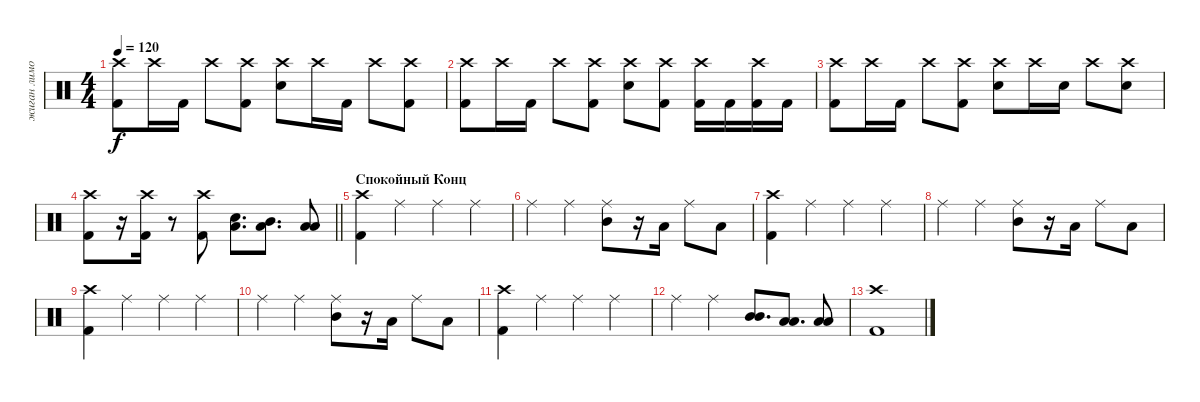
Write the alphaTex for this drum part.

\track ("жиган лимон" "жиган лимо") {instrument percussion}
\staff {score}
\articulation defaults
\ts (4 4)
\tempo 120
\clef neutral
\ks c
("Crash high (hit)" "Kick (hit) 2").8{dy f} "Crash high (hit)".16 "Kick (hit) 2".16 "Crash high (hit)".8 ("Crash high (hit)" "Kick (hit) 2").8 ("Snare (hit) 2" "Crash high (hit)").8 "Crash high (hit)".16 "Kick (hit) 2".16 "Crash high (hit)".8 ("Crash high (hit)" "Kick (hit) 2").8 |
("Crash high (hit)" "Kick (hit) 2").8 "Crash high (hit)".16 "Kick (hit) 2".16 "Crash high (hit)".8 ("Crash high (hit)" "Kick (hit) 2").8 ("Snare (hit) 2" "Crash high (hit)").8 ("Crash high (hit)" "Kick (hit) 2").8 ("Crash high (hit)" "Kick (hit) 2").16 "Kick (hit) 2".16 ("Crash high (hit)" "Kick (hit) 2").16 "Kick (hit) 2".16 |
("Crash high (hit)" "Kick (hit) 2").8 "Crash high (hit)".16 "Kick (hit) 2".16 "Crash high (hit)".8 ("Crash high (hit)" "Kick (hit) 2").8 ("Snare (hit) 2" "Crash high (hit)").8 "Crash high (hit)".16 "Snare (hit) 2".16 "Crash high (hit)".8 ("Crash high (hit)" "Snare (hit) 2").8 |
\barLineRight lightlight
("Crash high (hit)" "Kick (hit) 2").8 r.16 ("Crash high (hit)" "Kick (hit) 2").16 r.8 ("Crash high (hit)" "Kick (hit) 2").8 ("Low Tom (hit)" "Snare (hit) 2").8{d} ("Mid Tom (hit)" "Low Tom (hit)").8{d} ("Low Tom (hit)" "Low Tom (hit)").8 |
\section ("" "Спокойный Конц")
("Crash high (hit)" "Kick (hit) 2").4 "Ride (middle)".4 "Ride (middle)".4 "Ride (middle)".4 |
"Ride (middle)".4 "Ride (middle)".4 ("Ride (middle)" "Mid Tom (hit)").8 r.16 "Low Tom (hit)".16 "Ride (middle)".8 "Low Floor Tom (hit)".8 |
("Crash high (hit)" "Kick (hit) 2").4 "Ride (middle)".4 "Ride (middle)".4 "Ride (middle)".4 |
"Ride (middle)".4 "Ride (middle)".4 ("Ride (middle)" "Mid Tom (hit)").8 r.16 "Low Tom (hit)".16 "Ride (middle)".8 "Low Floor Tom (hit)".8 |
("Crash high (hit)" "Kick (hit) 2").4 "Ride (middle)".4 "Ride (middle)".4 "Ride (middle)".4 |
"Ride (middle)".4 "Ride (middle)".4 ("Ride (middle)" "Mid Tom (hit)").8 r.16 "Low Tom (hit)".16 "Ride (middle)".8 "Low Floor Tom (hit)".8 |
("Crash high (hit)" "Kick (hit) 2").4 "Ride (middle)".4 "Ride (middle)".4 "Ride (middle)".4 |
"Ride (middle)".4 "Ride (middle)".4 ("Mid Tom (hit)" "Mid Tom (hit)").8{d} ("Low Tom (hit)" "Low Tom (hit)").8{d} ("Low Floor Tom (hit)" "Low Floor Tom (hit)").8 |
("Crash high (hit)" "Kick (hit) 2").1
